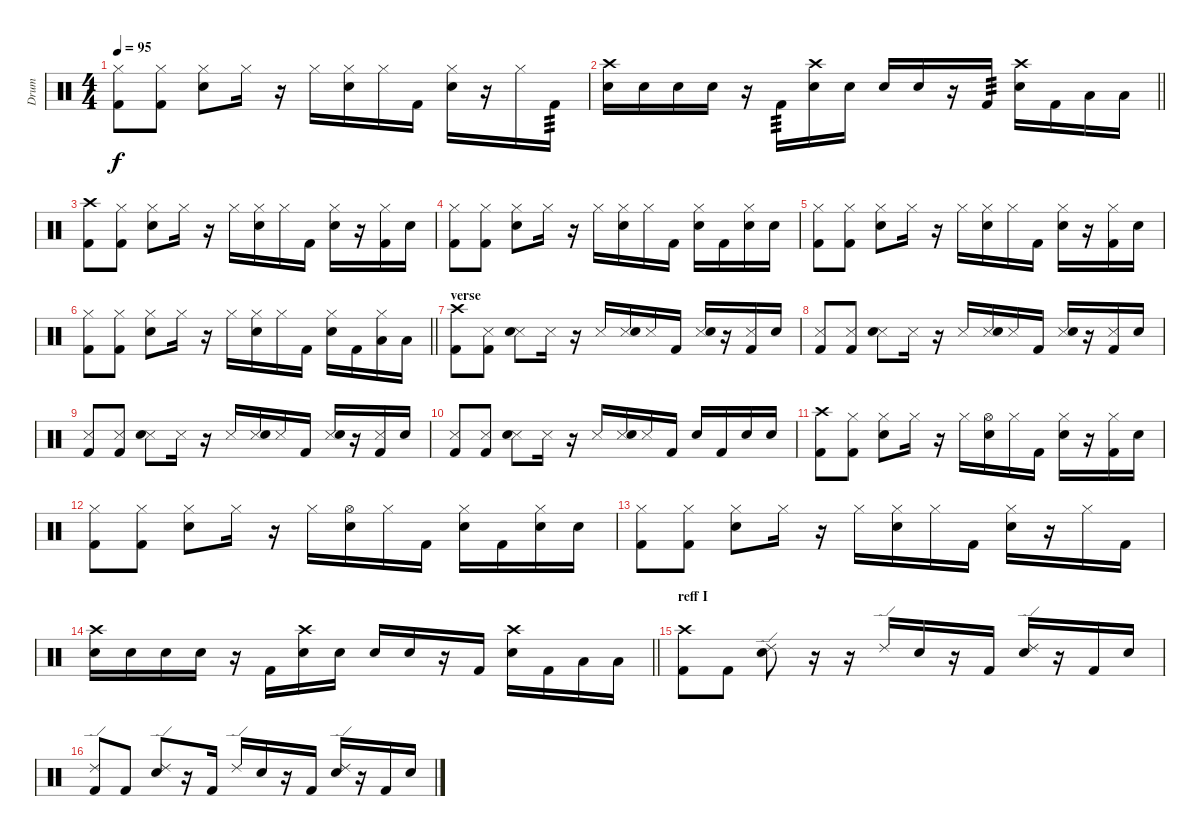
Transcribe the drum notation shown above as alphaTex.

\track ("Drum" "Drum") {instrument percussion}
\staff {score}
\articulation defaults
\ts (4 4)
\tempo 95
\clef neutral
\ks c
("Hi-Hat (closed)" "Kick (hit) 2").8{dy f} ("Hi-Hat (closed)" "Kick (hit) 2").8 ("Hi-Hat (closed)" "Snare (hit) 2").8 "Hi-Hat (closed)".16 r.16 "Hi-Hat (closed)".16 ("Hi-Hat (closed)" "Snare (hit) 2").16 "Hi-Hat (closed)".16 "Kick (hit) 2".16 ("Hi-Hat (closed)" "Snare (hit) 2").16 r.16 "Hi-Hat (closed)".16 "Kick (hit) 2".16{tp 3} |
\barLineRight lightlight
("Crash high (hit)" "Snare (hit) 2").16 "Snare (hit) 2".16 "Snare (hit) 2".16 "Snare (hit) 2".16 r.16 "Kick (hit) 2".16{tp 3} ("Crash high (hit)" "Snare (hit) 2").16 "Snare (hit) 2".16 "Snare (hit) 2".16 "Snare (hit) 2".16 r.16 "Kick (hit) 2".16{tp 3} ("Crash high (hit)" "Snare (hit) 2").16 "Kick (hit) 2".16 "Low Tom (hit)".16 "Low Tom (hit)".16 |
\section ("" "")
("Crash high (hit)" "Kick (hit) 2").8 ("Hi-Hat (closed)" "Kick (hit) 2").8 ("Hi-Hat (closed)" "Snare (hit) 2").8 "Hi-Hat (closed)".16 r.16 "Hi-Hat (closed)".16 ("Hi-Hat (closed)" "Snare (hit) 2").16 "Hi-Hat (closed)".16 "Kick (hit) 2".16 ("Hi-Hat (closed)" "Snare (hit) 2").16 r.16 ("Hi-Hat (closed)" "Kick (hit) 2").16 "Snare (hit) 2".16 |
("Hi-Hat (closed)" "Kick (hit) 2").8 ("Hi-Hat (closed)" "Kick (hit) 2").8 ("Hi-Hat (closed)" "Snare (hit) 2").8 "Hi-Hat (closed)".16 r.16 "Hi-Hat (closed)".16 ("Hi-Hat (closed)" "Snare (hit) 2").16 "Hi-Hat (closed)".16 "Kick (hit) 2".16 ("Hi-Hat (closed)" "Snare (hit) 2").16 "Kick (hit) 2".16 ("Hi-Hat (closed)" "Snare (hit) 2").16 "Snare (hit) 2".16 |
("Hi-Hat (closed)" "Kick (hit) 2").8 ("Hi-Hat (closed)" "Kick (hit) 2").8 ("Hi-Hat (closed)" "Snare (hit) 2").8 "Hi-Hat (closed)".16 r.16 "Hi-Hat (closed)".16 ("Hi-Hat (closed)" "Snare (hit) 2").16 "Hi-Hat (closed)".16 "Kick (hit) 2".16 ("Hi-Hat (closed)" "Snare (hit) 2").16 r.16 ("Hi-Hat (closed)" "Kick (hit) 2").16 "Snare (hit) 2".16 |
\barLineRight lightlight
("Hi-Hat (closed)" "Kick (hit) 2").8 ("Hi-Hat (closed)" "Kick (hit) 2").8 ("Hi-Hat (closed)" "Snare (hit) 2").8 "Hi-Hat (closed)".16 r.16 "Hi-Hat (closed)".16 ("Hi-Hat (closed)" "Snare (hit) 2").16 "Hi-Hat (closed)".16 "Kick (hit) 2".16 ("Hi-Hat (closed)" "Snare (hit) 2").16 "Kick (hit) 2".16 ("Hi-Hat (closed)" "Low Tom (hit)").16 "Low Tom (hit)".16 |
\section ("" "verse")
("Crash high (hit)" "Kick (hit) 2").8 ("Snare (side stick) 3" "Kick (hit) 2").8 ("Snare (side stick) 3" "Snare (hit) 2").8 "Snare (side stick) 3".16 r.16 "Snare (side stick) 3".16 ("Snare (side stick) 3" "Snare (hit) 2").16 "Snare (side stick) 3".16 "Kick (hit) 2".16 ("Snare (side stick) 3" "Snare (hit) 2").16 r.16 ("Snare (side stick) 3" "Kick (hit) 2").16 "Snare (hit) 2".16 |
("Snare (side stick) 3" "Kick (hit) 2").8 ("Snare (side stick) 3" "Kick (hit) 2").8 ("Snare (side stick) 3" "Snare (hit) 2").8 "Snare (side stick) 3".16 r.16 "Snare (side stick) 3".16 ("Snare (side stick) 3" "Snare (hit) 2").16 "Snare (side stick) 3".16 "Kick (hit) 2".16 ("Snare (side stick) 3" "Snare (hit) 2").16 r.16 ("Snare (side stick) 3" "Kick (hit) 2").16 "Snare (hit) 2".16 |
("Snare (side stick) 3" "Kick (hit) 2").8 ("Snare (side stick) 3" "Kick (hit) 2").8 ("Snare (side stick) 3" "Snare (hit) 2").8 "Snare (side stick) 3".16 r.16 "Snare (side stick) 3".16 ("Snare (side stick) 3" "Snare (hit) 2").16 "Snare (side stick) 3".16 "Kick (hit) 2".16 ("Snare (side stick) 3" "Snare (hit) 2").16 r.16 ("Snare (side stick) 3" "Kick (hit) 2").16 "Snare (hit) 2".16 |
("Snare (side stick) 3" "Kick (hit) 2").8 ("Snare (side stick) 3" "Kick (hit) 2").8 ("Snare (side stick) 3" "Snare (hit) 2").8 "Snare (side stick) 3".16 r.16 "Snare (side stick) 3".16 ("Snare (side stick) 3" "Snare (hit) 2").16 "Snare (side stick) 3".16 "Kick (hit) 2".16 "Snare (hit) 2".16 "Kick (hit) 2".16 "Snare (hit) 2".16 "Snare (hit) 2".16 |
("Crash high (hit)" "Kick (hit) 2").8 ("Hi-Hat (closed)" "Kick (hit) 2").8 ("Hi-Hat (closed)" "Snare (hit) 2").8 "Hi-Hat (closed)".16 r.16 "Hi-Hat (closed)".16 ("Hi-Hat (open)" "Snare (hit) 2").16 "Hi-Hat (closed)".16 "Kick (hit) 2".16 ("Hi-Hat (closed)" "Snare (hit) 2").16 r.16 ("Hi-Hat (closed)" "Kick (hit) 2").16 "Snare (hit) 2".16 |
("Hi-Hat (closed)" "Kick (hit) 2").8 ("Hi-Hat (closed)" "Kick (hit) 2").8 ("Hi-Hat (closed)" "Snare (hit) 2").8 "Hi-Hat (closed)".16 r.16 "Hi-Hat (closed)".16 ("Hi-Hat (open)" "Snare (hit) 2").16 "Hi-Hat (closed)".16 "Kick (hit) 2".16 ("Hi-Hat (closed)" "Snare (hit) 2").16 "Kick (hit) 2".16 ("Hi-Hat (closed)" "Snare (hit) 2").16 "Snare (hit) 2".16 |
("Hi-Hat (closed)" "Kick (hit) 2").8 ("Hi-Hat (closed)" "Kick (hit) 2").8 ("Hi-Hat (closed)" "Snare (hit) 2").8 "Hi-Hat (closed)".16 r.16 "Hi-Hat (closed)".16 ("Hi-Hat (closed)" "Snare (hit) 2").16 "Hi-Hat (closed)".16 "Kick (hit) 2".16 ("Hi-Hat (closed)" "Snare (hit) 2").16 r.16 "Hi-Hat (closed)".16 "Kick (hit) 2".16 |
\barLineRight lightlight
("Crash high (hit)" "Snare (hit) 2").16 "Snare (hit) 2".16 "Snare (hit) 2".16 "Snare (hit) 2".16 r.16 "Kick (hit) 2".16 ("Crash high (hit)" "Snare (hit) 2").16 "Snare (hit) 2".16 "Snare (hit) 2".16 "Snare (hit) 2".16 r.16 "Kick (hit) 2".16 ("Crash high (hit)" "Snare (hit) 2").16 "Kick (hit) 2".16 "Low Tom (hit)".16 "Low Tom (hit)".16 |
\section ("" "reff I")
("Crash high (hit)" "Kick (hit) 2").8 "Kick (hit) 2".8 ("Ride (edge) 2" "Snare (hit) 2").8 r.16 r.16 "Ride (edge) 2".16 "Snare (hit) 2".16 r.16 "Kick (hit) 2".16 ("Ride (edge) 2" "Snare (hit) 2").16 r.16 "Kick (hit) 2".16 "Snare (hit) 2".16 |
("Ride (edge) 2" "Kick (hit) 2").8 "Kick (hit) 2".8 ("Ride (edge) 2" "Snare (hit) 2").8 r.16 "Kick (hit) 2".16 "Ride (edge) 2".16 "Snare (hit) 2".16 r.16 "Kick (hit) 2".16 ("Ride (edge) 2" "Snare (hit) 2").16 r.16 "Kick (hit) 2".16 "Snare (hit) 2".16
